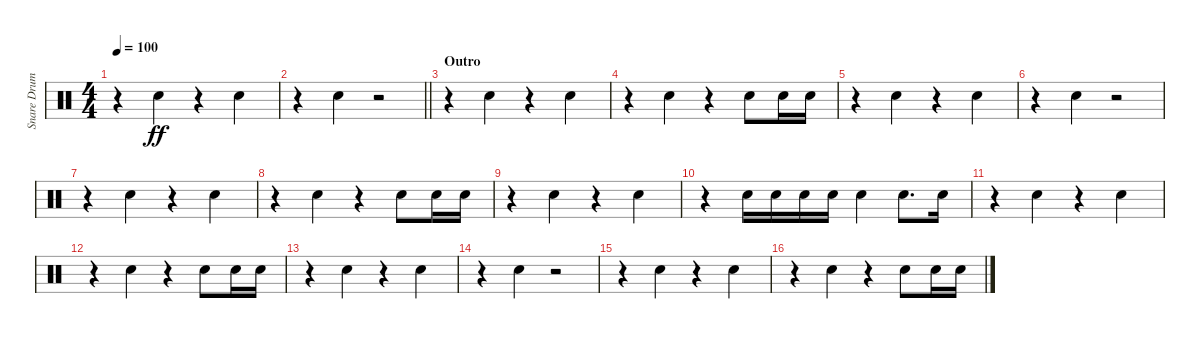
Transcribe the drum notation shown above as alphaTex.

\track ("Snare Drum - reverb" "Snare Drum") {instrument percussion}
\staff {score}
\articulation defaults
\ts (4 4)
\tempo 100
\clef neutral
\ks c
r.4{dy ff} "Snare (hit) 2".4 r.4 "Snare (hit) 2".4 |
\barLineRight lightlight
r.4 "Snare (hit) 2".4 r.2 |
\section ("" "Outro")
r.4 "Snare (hit) 2".4 r.4 "Snare (hit) 2".4 |
r.4 "Snare (hit) 2".4 r.4 "Snare (hit) 2".8 "Snare (hit) 2".16 "Snare (hit) 2".16 |
r.4 "Snare (hit) 2".4 r.4 "Snare (hit) 2".4 |
r.4 "Snare (hit) 2".4 r.2 |
r.4 "Snare (hit) 2".4 r.4 "Snare (hit) 2".4 |
r.4 "Snare (hit) 2".4 r.4 "Snare (hit) 2".8 "Snare (hit) 2".16 "Snare (hit) 2".16 |
r.4 "Snare (hit) 2".4 r.4 "Snare (hit) 2".4 |
r.4 "Snare (hit) 2".16 "Snare (hit) 2".16 "Snare (hit) 2".16 "Snare (hit) 2".16 "Snare (hit) 2".4 "Snare (hit) 2".8{d} "Snare (hit) 2".16 |
r.4 "Snare (hit) 2".4 r.4 "Snare (hit) 2".4 |
r.4 "Snare (hit) 2".4 r.4 "Snare (hit) 2".8 "Snare (hit) 2".16 "Snare (hit) 2".16 |
r.4 "Snare (hit) 2".4 r.4 "Snare (hit) 2".4 |
r.4 "Snare (hit) 2".4 r.2 |
r.4 "Snare (hit) 2".4 r.4 "Snare (hit) 2".4 |
r.4 "Snare (hit) 2".4 r.4 "Snare (hit) 2".8 "Snare (hit) 2".16 "Snare (hit) 2".16
